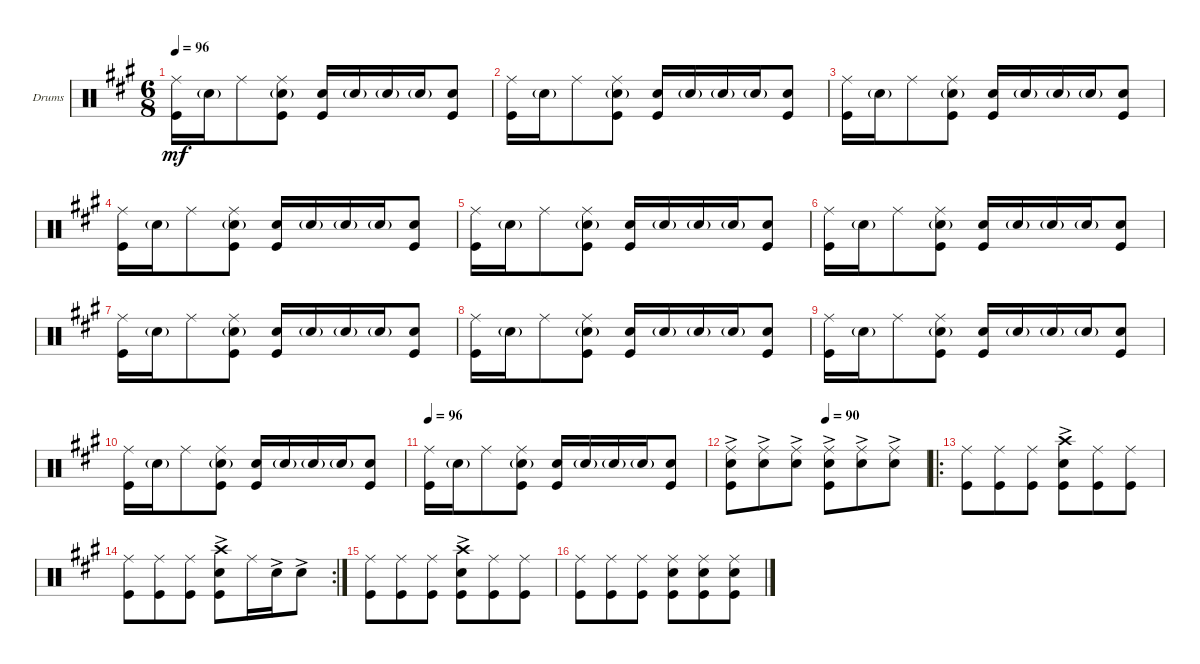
\bracketExtendMode groupsimilarinstruments
\firstSystemTrackNameOrientation horizontal
\otherSystemsTrackNameOrientation horizontal
\track ("Drumkit" "Drums") {instrument percussion}
\staff {score}
\articulation defaults
\ts (6 8)
\tempo 96
\clef neutral
\scale
0.333333
\ks a
("Ride (middle)" "Kick (hit)").16{dy mf} "Snare (hit) 2"{g}.16 "Ride (middle)".8 ("Snare (hit) 2"{g} "Ride (middle)" "Kick (hit)").8 ("Snare (hit) 2" "Kick (hit)").16 "Snare (hit) 2"{g}.16 "Snare (hit) 2"{g}.16 "Snare (hit) 2"{g}.16 ("Snare (hit) 2" "Kick (hit)").8 |
\scale
0.333333 ("Ride (middle)" "Kick (hit)").16 "Snare (hit) 2"{g}.16 "Ride (middle)".8 ("Snare (hit) 2"{g} "Ride (middle)" "Kick (hit)").8 ("Snare (hit) 2" "Kick (hit)").16 "Snare (hit) 2"{g}.16 "Snare (hit) 2"{g}.16 "Snare (hit) 2"{g}.16 ("Snare (hit) 2" "Kick (hit)").8 |
\scale
0.333333 ("Ride (middle)" "Kick (hit)").16 "Snare (hit) 2"{g}.16 "Ride (middle)".8 ("Snare (hit) 2"{g} "Ride (middle)" "Kick (hit)").8 ("Snare (hit) 2" "Kick (hit)").16 "Snare (hit) 2"{g}.16 "Snare (hit) 2"{g}.16 "Snare (hit) 2"{g}.16 ("Snare (hit) 2" "Kick (hit)").8 |
\scale
0.333333 ("Ride (middle)" "Kick (hit)").16 "Snare (hit) 2"{g}.16 "Ride (middle)".8 ("Snare (hit) 2"{g} "Ride (middle)" "Kick (hit)").8 ("Snare (hit) 2" "Kick (hit)").16 "Snare (hit) 2"{g}.16 "Snare (hit) 2"{g}.16 "Snare (hit) 2"{g}.16 ("Snare (hit) 2" "Kick (hit)").8 |
\scale
0.333333 ("Ride (middle)" "Kick (hit)").16 "Snare (hit) 2"{g}.16 "Ride (middle)".8 ("Snare (hit) 2"{g} "Ride (middle)" "Kick (hit)").8 ("Snare (hit) 2" "Kick (hit)").16 "Snare (hit) 2"{g}.16 "Snare (hit) 2"{g}.16 "Snare (hit) 2"{g}.16 ("Snare (hit) 2" "Kick (hit)").8 |
\scale
0.333333 ("Ride (middle)" "Kick (hit)").16 "Snare (hit) 2"{g}.16 "Ride (middle)".8 ("Snare (hit) 2"{g} "Ride (middle)" "Kick (hit)").8 ("Snare (hit) 2" "Kick (hit)").16 "Snare (hit) 2"{g}.16 "Snare (hit) 2"{g}.16 "Snare (hit) 2"{g}.16 ("Snare (hit) 2" "Kick (hit)").8 |
\scale
0.333333 ("Ride (middle)" "Kick (hit)").16 "Snare (hit) 2"{g}.16 "Ride (middle)".8 ("Snare (hit) 2"{g} "Ride (middle)" "Kick (hit)").8 ("Snare (hit) 2" "Kick (hit)").16 "Snare (hit) 2"{g}.16 "Snare (hit) 2"{g}.16 "Snare (hit) 2"{g}.16 ("Snare (hit) 2" "Kick (hit)").8 |
\scale
0.333333 ("Ride (middle)" "Kick (hit)").16 "Snare (hit) 2"{g}.16 "Ride (middle)".8 ("Snare (hit) 2"{g} "Ride (middle)" "Kick (hit)").8 ("Snare (hit) 2" "Kick (hit)").16 "Snare (hit) 2"{g}.16 "Snare (hit) 2"{g}.16 "Snare (hit) 2"{g}.16 ("Snare (hit) 2" "Kick (hit)").8 |
\scale
0.333333 ("Ride (middle)" "Kick (hit)").16 "Snare (hit) 2"{g}.16 "Ride (middle)".8 ("Snare (hit) 2"{g} "Ride (middle)" "Kick (hit)").8 ("Snare (hit) 2" "Kick (hit)").16 "Snare (hit) 2"{g}.16 "Snare (hit) 2"{g}.16 "Snare (hit) 2"{g}.16 ("Snare (hit) 2" "Kick (hit)").8 |
\scale
0.333333 ("Ride (middle)" "Kick (hit)").16 "Snare (hit) 2"{g}.16 "Ride (middle)".8 ("Snare (hit) 2"{g} "Ride (middle)" "Kick (hit)").8 ("Snare (hit) 2" "Kick (hit)").16 "Snare (hit) 2"{g}.16 "Snare (hit) 2"{g}.16 "Snare (hit) 2"{g}.16 ("Snare (hit) 2" "Kick (hit)").8 |
\tempo 96
\scale
0.333333 ("Ride (middle)" "Kick (hit)").16 "Snare (hit) 2"{g}.16 "Ride (middle)".8 ("Snare (hit) 2"{g} "Ride (middle)" "Kick (hit)").8 ("Snare (hit) 2" "Kick (hit)").16 "Snare (hit) 2"{g}.16 "Snare (hit) 2"{g}.16 "Snare (hit) 2"{g}.16 ("Snare (hit) 2" "Kick (hit)").8 |
\tempo (90 0.4875)
\scale
0.301587 ("Snare (hit) 2"{ac} "Ride (middle)" "Kick (hit)").8 ("Ride (middle)" "Snare (hit) 2"{ac}).8 ("Ride (middle)" "Snare (hit) 2"{ac}).8 ("Snare (hit) 2"{ac} "Ride (middle)" "Kick (hit)").8 ("Ride (middle)" "Snare (hit) 2"{ac}).8 ("Ride (middle)" "Snare (hit) 2"{ac}).8 |
\ro
\scale
0.365079 ("Kick (hit)" "Ride (middle)").8 ("Ride (middle)" "Kick (hit)").8 ("Kick (hit)" "Ride (middle)").8 ("Crash high (hit)"{ac} "Kick (hit)" "Snare (hit) 2").8 ("Ride (middle)" "Kick (hit)").8 ("Kick (hit)" "Ride (middle)").8 |
\rc 2
\scale
0.333333 ("Kick (hit)" "Ride (middle)").8 ("Ride (middle)" "Kick (hit)").8 ("Kick (hit)" "Ride (middle)").8 ("Crash high (hit)"{ac} "Snare (hit) 2" "Kick (hit)").8 "Ride (middle)".16 "Snare (hit) 2"{ac}.16 "Snare (hit) 2"{ac}.8 |
\scale
0.333333 ("Kick (hit)" "Ride (middle)").8 ("Ride (middle)" "Kick (hit)").8 ("Kick (hit)" "Ride (middle)").8 ("Crash high (hit)"{ac} "Kick (hit)" "Snare (hit) 2").8 ("Ride (middle)" "Kick (hit)").8 ("Kick (hit)" "Ride (middle)").8 |
\scale
0.333333 ("Kick (hit)" "Ride (middle)").8 ("Ride (middle)" "Kick (hit)").8 ("Kick (hit)" "Ride (middle)").8 ("Kick (hit)" "Ride (middle)" "Snare (hit) 2").8 ("Ride (middle)" "Kick (hit)" "Snare (hit) 2").8 ("Kick (hit)" "Ride (middle)" "Snare (hit) 2").8
